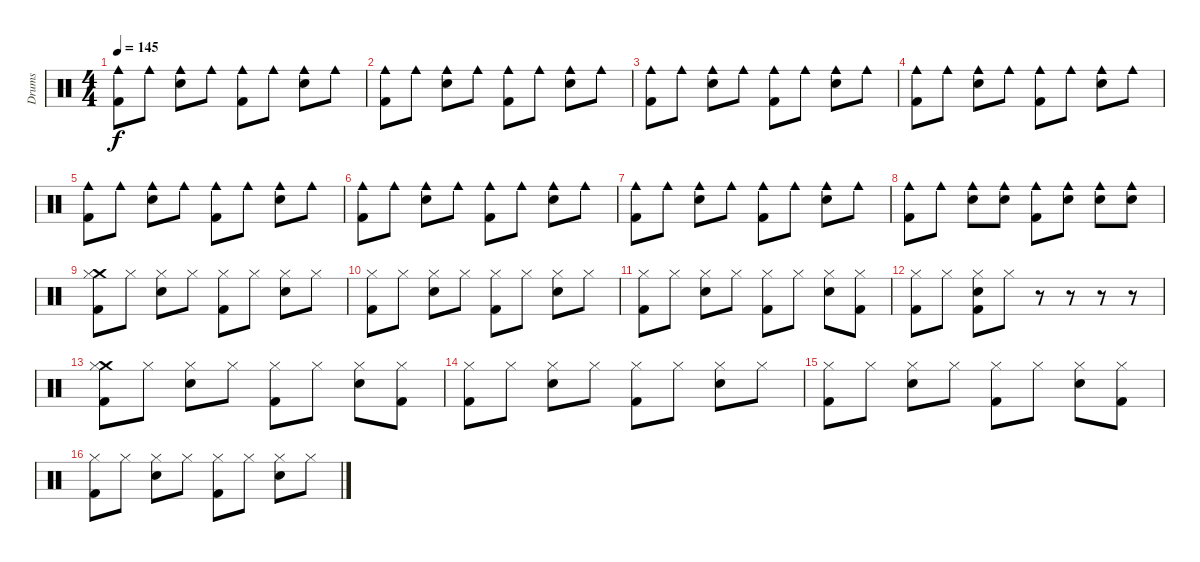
\track ("Drums" "Drums") {instrument percussion}
\staff {score}
\articulation defaults
\ts (4 4)
\tempo 145
\clef neutral
\ks c
("Cowbell medium (hit)" "Kick (hit) 2").8{dy f} "Cowbell medium (hit)".8 ("Cowbell medium (hit)" "Electric Snare (hit)").8 "Cowbell medium (hit)".8 ("Cowbell medium (hit)" "Kick (hit) 2").8 "Cowbell medium (hit)".8 ("Cowbell medium (hit)" "Electric Snare (hit)").8 "Cowbell medium (hit)".8 |
("Cowbell medium (hit)" "Kick (hit) 2").8 "Cowbell medium (hit)".8 ("Cowbell medium (hit)" "Electric Snare (hit)").8 "Cowbell medium (hit)".8 ("Cowbell medium (hit)" "Kick (hit) 2").8 "Cowbell medium (hit)".8 ("Cowbell medium (hit)" "Electric Snare (hit)").8 "Cowbell medium (hit)".8 |
("Cowbell medium (hit)" "Kick (hit) 2").8 "Cowbell medium (hit)".8 ("Cowbell medium (hit)" "Electric Snare (hit)").8 "Cowbell medium (hit)".8 ("Cowbell medium (hit)" "Kick (hit) 2").8 "Cowbell medium (hit)".8 ("Cowbell medium (hit)" "Electric Snare (hit)").8 "Cowbell medium (hit)".8 |
("Cowbell medium (hit)" "Kick (hit) 2").8 "Cowbell medium (hit)".8 ("Cowbell medium (hit)" "Electric Snare (hit)").8 "Cowbell medium (hit)".8 ("Cowbell medium (hit)" "Kick (hit) 2").8 "Cowbell medium (hit)".8 ("Cowbell medium (hit)" "Electric Snare (hit)").8 "Cowbell medium (hit)".8 |
("Cowbell medium (hit)" "Kick (hit) 2").8 "Cowbell medium (hit)".8 ("Cowbell medium (hit)" "Electric Snare (hit)").8 "Cowbell medium (hit)".8 ("Cowbell medium (hit)" "Kick (hit) 2").8 "Cowbell medium (hit)".8 ("Cowbell medium (hit)" "Electric Snare (hit)").8 "Cowbell medium (hit)".8 |
("Cowbell medium (hit)" "Kick (hit) 2").8 "Cowbell medium (hit)".8 ("Cowbell medium (hit)" "Electric Snare (hit)").8 "Cowbell medium (hit)".8 ("Cowbell medium (hit)" "Kick (hit) 2").8 "Cowbell medium (hit)".8 ("Cowbell medium (hit)" "Electric Snare (hit)").8 "Cowbell medium (hit)".8 |
("Cowbell medium (hit)" "Kick (hit) 2").8 "Cowbell medium (hit)".8 ("Cowbell medium (hit)" "Electric Snare (hit)").8 "Cowbell medium (hit)".8 ("Cowbell medium (hit)" "Kick (hit) 2").8 "Cowbell medium (hit)".8 ("Cowbell medium (hit)" "Electric Snare (hit)").8 "Cowbell medium (hit)".8 |
("Cowbell medium (hit)" "Kick (hit) 2").8 "Cowbell medium (hit)".8 ("Cowbell medium (hit)" "Electric Snare (hit)").8 ("Cowbell medium (hit)" "Electric Snare (hit)").8 ("Cowbell medium (hit)" "Kick (hit) 2").8 ("Cowbell medium (hit)" "Electric Snare (hit)").8 ("Cowbell medium (hit)" "Electric Snare (hit)").8 ("Cowbell medium (hit)" "Electric Snare (hit)").8 |
("Crash medium (hit)" "Hi-Hat (closed)" "Kick (hit) 2").8 "Hi-Hat (closed)".8 ("Hi-Hat (closed)" "Electric Snare (hit)").8 "Hi-Hat (closed)".8 ("Hi-Hat (closed)" "Kick (hit) 2").8 "Hi-Hat (closed)".8 ("Hi-Hat (closed)" "Electric Snare (hit)").8 "Hi-Hat (closed)".8 |
("Hi-Hat (closed)" "Kick (hit) 2").8 "Hi-Hat (closed)".8 ("Hi-Hat (closed)" "Electric Snare (hit)").8 "Hi-Hat (closed)".8 ("Hi-Hat (closed)" "Kick (hit) 2").8 "Hi-Hat (closed)".8 ("Hi-Hat (closed)" "Electric Snare (hit)").8 "Hi-Hat (closed)".8 |
("Hi-Hat (closed)" "Kick (hit) 2").8 "Hi-Hat (closed)".8 ("Hi-Hat (closed)" "Electric Snare (hit)").8 "Hi-Hat (closed)".8 ("Hi-Hat (closed)" "Kick (hit) 2").8 "Hi-Hat (closed)".8 ("Hi-Hat (closed)" "Electric Snare (hit)").8 ("Hi-Hat (closed)" "Kick (hit) 2").8 |
("Hi-Hat (closed)" "Kick (hit) 2").8 "Hi-Hat (closed)".8 ("Hi-Hat (closed)" "Electric Snare (hit)" "Kick (hit) 2").8 "Hi-Hat (closed)".8 r.8 r.8 r.8 r.8 |
("Crash medium (hit)" "Hi-Hat (closed)" "Kick (hit) 2").8 "Hi-Hat (closed)".8 ("Hi-Hat (closed)" "Electric Snare (hit)").8 "Hi-Hat (closed)".8 ("Hi-Hat (closed)" "Kick (hit) 2").8 "Hi-Hat (closed)".8 ("Hi-Hat (closed)" "Electric Snare (hit)").8 ("Hi-Hat (closed)" "Kick (hit) 2").8 |
("Hi-Hat (closed)" "Kick (hit) 2").8 "Hi-Hat (closed)".8 ("Hi-Hat (closed)" "Electric Snare (hit)").8 "Hi-Hat (closed)".8 ("Hi-Hat (closed)" "Kick (hit) 2").8 "Hi-Hat (closed)".8 ("Hi-Hat (closed)" "Electric Snare (hit)").8 "Hi-Hat (closed)".8 |
("Hi-Hat (closed)" "Kick (hit) 2").8 "Hi-Hat (closed)".8 ("Hi-Hat (closed)" "Electric Snare (hit)").8 "Hi-Hat (closed)".8 ("Hi-Hat (closed)" "Kick (hit) 2").8 "Hi-Hat (closed)".8 ("Hi-Hat (closed)" "Electric Snare (hit)").8 ("Hi-Hat (closed)" "Kick (hit) 2").8 |
("Hi-Hat (closed)" "Kick (hit) 2").8 "Hi-Hat (closed)".8 ("Hi-Hat (closed)" "Electric Snare (hit)").8 "Hi-Hat (closed)".8 ("Hi-Hat (closed)" "Kick (hit) 2").8 "Hi-Hat (closed)".8 ("Hi-Hat (closed)" "Electric Snare (hit)").8 "Hi-Hat (closed)".8
